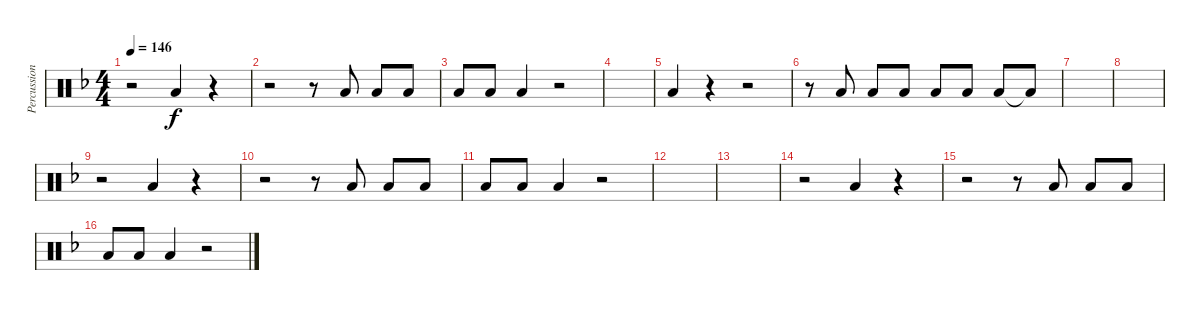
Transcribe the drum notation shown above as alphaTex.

\track ("Percussioni" "Percussion") {instrument percussion}
\staff {score}
\articulation defaults
\ts (4 4)
\tempo 146
\clef neutral
\ks dminor
r.2{dy f} "Low Floor Tom (hit)".4 r.4 |
r.2 r.8 "Low Floor Tom (hit)".8 "Low Floor Tom (hit)".8 "Low Floor Tom (hit)".8 |
"Low Floor Tom (hit)".8 "Low Floor Tom (hit)".8 "Low Floor Tom (hit)".4 r.2 |
|
"Low Floor Tom (hit)".4 r.4 r.2 |
r.8 "Low Floor Tom (hit)".8 "Low Floor Tom (hit)".8 "Low Floor Tom (hit)".8 "Low Floor Tom (hit)".8 "Low Floor Tom (hit)".8 "Low Floor Tom (hit)".8 "Low Floor Tom (hit)"{t}.8 |
|
|
r.2 "Low Floor Tom (hit)".4 r.4 |
r.2 r.8 "Low Floor Tom (hit)".8 "Low Floor Tom (hit)".8 "Low Floor Tom (hit)".8 |
"Low Floor Tom (hit)".8 "Low Floor Tom (hit)".8 "Low Floor Tom (hit)".4 r.2 |
|
|
r.2 "Low Floor Tom (hit)".4 r.4 |
r.2 r.8 "Low Floor Tom (hit)".8 "Low Floor Tom (hit)".8 "Low Floor Tom (hit)".8 |
"Low Floor Tom (hit)".8 "Low Floor Tom (hit)".8 "Low Floor Tom (hit)".4 r.2
